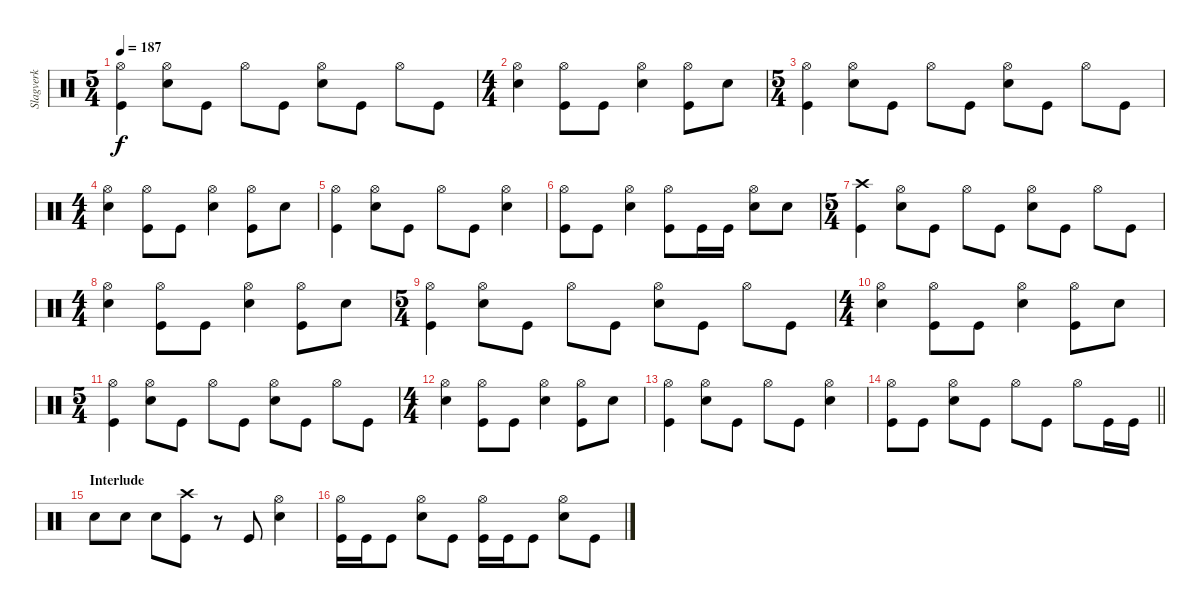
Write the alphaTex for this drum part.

\track ("Slagverk" "Slagverk") {instrument percussion}
\staff {score}
\articulation defaults
\ts (5 4)
\tempo 187
\clef neutral
\ks c
("Hi-Hat (open)" "Kick (hit)").4{dy f} ("Hi-Hat (open)" "Electric Snare (hit)").8 "Kick (hit)".8 "Hi-Hat (open)".8 "Kick (hit)".8 ("Hi-Hat (open)" "Electric Snare (hit)").8 "Kick (hit)".8 "Hi-Hat (open)".8 "Kick (hit)".8 |
\ts (4 4)
("Hi-Hat (open)" "Electric Snare (hit)").4 ("Hi-Hat (open)" "Kick (hit)").8 "Kick (hit)".8 ("Hi-Hat (open)" "Electric Snare (hit)").4 ("Hi-Hat (open)" "Kick (hit)").8 "Electric Snare (hit)".8 |
\ts (5 4)
("Hi-Hat (open)" "Kick (hit)").4 ("Hi-Hat (open)" "Electric Snare (hit)").8 "Kick (hit)".8 "Hi-Hat (open)".8 "Kick (hit)".8 ("Hi-Hat (open)" "Electric Snare (hit)").8 "Kick (hit)".8 "Hi-Hat (open)".8 "Kick (hit)".8 |
\ts (4 4)
("Hi-Hat (open)" "Electric Snare (hit)").4 ("Hi-Hat (open)" "Kick (hit)").8 "Kick (hit)".8 ("Hi-Hat (open)" "Electric Snare (hit)").4 ("Hi-Hat (open)" "Kick (hit)").8 "Electric Snare (hit)".8 |
("Hi-Hat (open)" "Kick (hit)").4 ("Hi-Hat (open)" "Electric Snare (hit)").8 "Kick (hit)".8 "Hi-Hat (open)".8 "Kick (hit)".8 ("Hi-Hat (open)" "Electric Snare (hit)").4 |
("Hi-Hat (open)" "Kick (hit)").8 "Kick (hit)".8 ("Hi-Hat (open)" "Electric Snare (hit)").4 ("Hi-Hat (open)" "Kick (hit)").8 "Kick (hit)".16 "Kick (hit)".16 ("Hi-Hat (open)" "Electric Snare (hit)").8 "Electric Snare (hit)".8 |
\ts (5 4)
("Crash high (hit)" "Kick (hit)").4 ("Hi-Hat (open)" "Electric Snare (hit)").8 "Kick (hit)".8 "Hi-Hat (open)".8 "Kick (hit)".8 ("Hi-Hat (open)" "Electric Snare (hit)").8 "Kick (hit)".8 "Hi-Hat (open)".8 "Kick (hit)".8 |
\ts (4 4)
("Hi-Hat (open)" "Electric Snare (hit)").4 ("Hi-Hat (open)" "Kick (hit)").8 "Kick (hit)".8 ("Hi-Hat (open)" "Electric Snare (hit)").4 ("Hi-Hat (open)" "Kick (hit)").8 "Electric Snare (hit)".8 |
\ts (5 4)
("Hi-Hat (open)" "Kick (hit)").4 ("Hi-Hat (open)" "Electric Snare (hit)").8 "Kick (hit)".8 "Hi-Hat (open)".8 "Kick (hit)".8 ("Hi-Hat (open)" "Electric Snare (hit)").8 "Kick (hit)".8 "Hi-Hat (open)".8 "Kick (hit)".8 |
\ts (4 4)
("Hi-Hat (open)" "Electric Snare (hit)").4 ("Hi-Hat (open)" "Kick (hit)").8 "Kick (hit)".8 ("Hi-Hat (open)" "Electric Snare (hit)").4 ("Hi-Hat (open)" "Kick (hit)").8 "Electric Snare (hit)".8 |
\ts (5 4)
("Hi-Hat (open)" "Kick (hit)").4 ("Hi-Hat (open)" "Electric Snare (hit)").8 "Kick (hit)".8 "Hi-Hat (open)".8 "Kick (hit)".8 ("Hi-Hat (open)" "Electric Snare (hit)").8 "Kick (hit)".8 "Hi-Hat (open)".8 "Kick (hit)".8 |
\ts (4 4)
("Hi-Hat (open)" "Electric Snare (hit)").4 ("Hi-Hat (open)" "Kick (hit)").8 "Kick (hit)".8 ("Hi-Hat (open)" "Electric Snare (hit)").4 ("Hi-Hat (open)" "Kick (hit)").8 "Electric Snare (hit)".8 |
("Hi-Hat (open)" "Kick (hit)").4 ("Hi-Hat (open)" "Electric Snare (hit)").8 "Kick (hit)".8 "Hi-Hat (open)".8 "Kick (hit)".8 ("Hi-Hat (open)" "Electric Snare (hit)").4 |
\barLineRight lightlight
("Hi-Hat (open)" "Kick (hit)").8 "Kick (hit)".8 ("Hi-Hat (open)" "Electric Snare (hit)").8 "Kick (hit)".8 "Hi-Hat (open)".8 "Kick (hit)".8 "Hi-Hat (open)".8 "Kick (hit)".16 "Kick (hit)".16 |
\section ("" "Interlude")
"Electric Snare (hit)".8 "Electric Snare (hit)".8 "Electric Snare (hit)".8 ("Crash high (hit)" "Kick (hit)").8 r.8 "Kick (hit)".8 ("Hi-Hat (open)" "Electric Snare (hit)").4 |
("Hi-Hat (open)" "Kick (hit)").16 "Kick (hit)".16 "Kick (hit)".8 ("Hi-Hat (open)" "Electric Snare (hit)").8 "Kick (hit)".8 ("Hi-Hat (open)" "Kick (hit)").16 "Kick (hit)".16 "Kick (hit)".8 ("Hi-Hat (open)" "Electric Snare (hit)").8 "Kick (hit)".8
